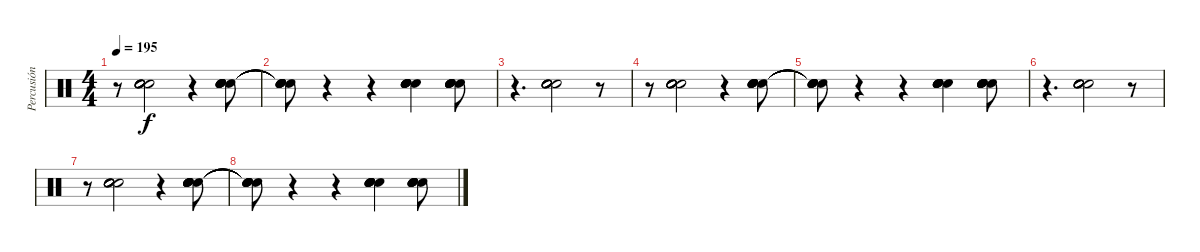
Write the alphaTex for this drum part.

\track ("Percusión" "Percusión") {instrument percussion}
\staff {score}
\articulation defaults
\ts (4 4)
\tempo 195
\clef neutral
\ks c
r.8{dy f} ("Hand Clap (hit)" "Hand Clap (hit)" "Hand Clap (hit)" "Hand Clap (hit)" "Hand Clap (hit)" "Hand Clap (hit)").2{bd 120} r.4 ("Hand Clap (hit)" "Hand Clap (hit)" "Hand Clap (hit)" "Hand Clap (hit)" "Hand Clap (hit)" "Hand Clap (hit)").8{bd 120} |
("Snare (hit)"{t} "Snare (hit)"{t} "Snare (hit)"{t} "Snare (hit)"{t} "Snare (hit)"{t} "Snare (hit)"{t}).8 r.4 r.4 ("Hand Clap (hit)" "Hand Clap (hit)" "Hand Clap (hit)" "Hand Clap (hit)" "Hand Clap (hit)" "Hand Clap (hit)").4{bd 120} ("Hand Clap (hit)" "Hand Clap (hit)" "Hand Clap (hit)" "Hand Clap (hit)" "Hand Clap (hit)" "Hand Clap (hit)").8{bd 120} |
r.4{d} ("Hand Clap (hit)" "Hand Clap (hit)" "Hand Clap (hit)" "Hand Clap (hit)" "Hand Clap (hit)" "Hand Clap (hit)").2{bd 120} r.8 |
r.8 ("Hand Clap (hit)" "Hand Clap (hit)" "Hand Clap (hit)" "Hand Clap (hit)" "Hand Clap (hit)" "Hand Clap (hit)").2{bd 120} r.4 ("Hand Clap (hit)" "Hand Clap (hit)" "Hand Clap (hit)" "Hand Clap (hit)" "Hand Clap (hit)" "Hand Clap (hit)").8{bd 120} |
("Snare (hit)"{t} "Snare (hit)"{t} "Snare (hit)"{t} "Snare (hit)"{t} "Snare (hit)"{t} "Snare (hit)"{t}).8 r.4 r.4 ("Hand Clap (hit)" "Hand Clap (hit)" "Hand Clap (hit)" "Hand Clap (hit)" "Hand Clap (hit)" "Hand Clap (hit)").4{bd 120} ("Hand Clap (hit)" "Hand Clap (hit)" "Hand Clap (hit)" "Hand Clap (hit)" "Hand Clap (hit)" "Hand Clap (hit)").8{bd 120} |
r.4{d} ("Hand Clap (hit)" "Hand Clap (hit)" "Hand Clap (hit)" "Hand Clap (hit)" "Hand Clap (hit)" "Hand Clap (hit)").2{bd 120} r.8 |
r.8 ("Hand Clap (hit)" "Hand Clap (hit)" "Hand Clap (hit)" "Hand Clap (hit)" "Hand Clap (hit)" "Hand Clap (hit)").2{bd 120} r.4 ("Hand Clap (hit)" "Hand Clap (hit)" "Hand Clap (hit)" "Hand Clap (hit)" "Hand Clap (hit)" "Hand Clap (hit)").8{bd 120} |
("Snare (hit)"{t} "Snare (hit)"{t} "Snare (hit)"{t} "Snare (hit)"{t} "Snare (hit)"{t} "Snare (hit)"{t}).8 r.4 r.4 ("Hand Clap (hit)" "Hand Clap (hit)" "Hand Clap (hit)" "Hand Clap (hit)" "Hand Clap (hit)" "Hand Clap (hit)").4{bd 120} ("Hand Clap (hit)" "Hand Clap (hit)" "Hand Clap (hit)" "Hand Clap (hit)" "Hand Clap (hit)" "Hand Clap (hit)").8{bd 120}
